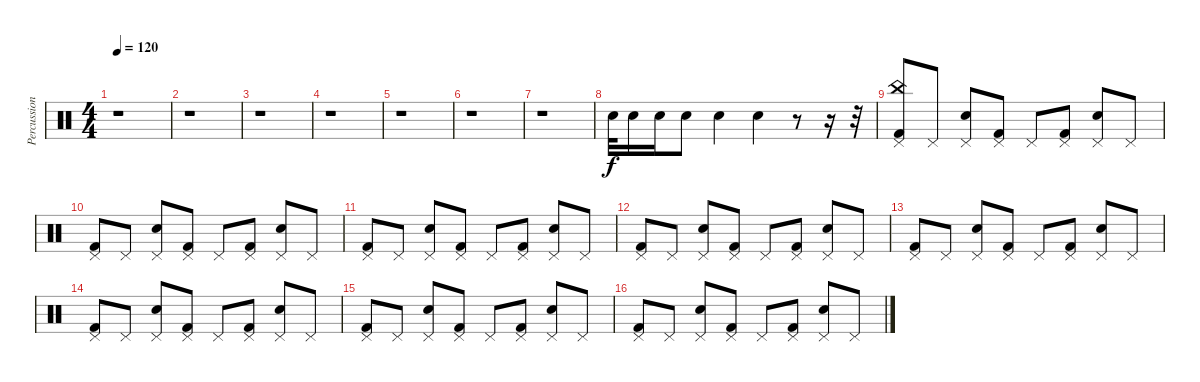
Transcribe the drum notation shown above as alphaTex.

\track ("Percussions" "Percussion") {instrument percussion}
\staff {score}
\articulation defaults
\ts (4 4)
\tempo 120
\clef neutral
\ks c
r.1{dy f} |
r.1 |
r.1 |
r.1 |
r.1 |
r.1 |
r.1 |
"Electric Snare (hit)".32 "Electric Snare (hit)".16 "Electric Snare (hit)".16 "Electric Snare (hit)".8 "Electric Snare (hit)".4 "Electric Snare (hit)".4 r.8 r.16 r.32 |
("Pedal Hi-Hat (hit)" "China (hit)" "Kick (hit) 2").8 "Pedal Hi-Hat (hit)".8 ("Pedal Hi-Hat (hit)" "Electric Snare (hit)").8 ("Pedal Hi-Hat (hit)" "Kick (hit) 2").8 "Pedal Hi-Hat (hit)".8 ("Pedal Hi-Hat (hit)" "Kick (hit) 2").8 ("Pedal Hi-Hat (hit)" "Electric Snare (hit)").8 "Pedal Hi-Hat (hit)".8 |
("Pedal Hi-Hat (hit)" "Kick (hit) 2").8 "Pedal Hi-Hat (hit)".8 ("Pedal Hi-Hat (hit)" "Electric Snare (hit)").8 ("Pedal Hi-Hat (hit)" "Kick (hit) 2").8 "Pedal Hi-Hat (hit)".8 ("Pedal Hi-Hat (hit)" "Kick (hit) 2").8 ("Pedal Hi-Hat (hit)" "Electric Snare (hit)").8 "Pedal Hi-Hat (hit)".8 |
("Pedal Hi-Hat (hit)" "Kick (hit) 2").8 "Pedal Hi-Hat (hit)".8 ("Pedal Hi-Hat (hit)" "Electric Snare (hit)").8 ("Pedal Hi-Hat (hit)" "Kick (hit) 2").8 "Pedal Hi-Hat (hit)".8 ("Pedal Hi-Hat (hit)" "Kick (hit) 2").8 ("Pedal Hi-Hat (hit)" "Electric Snare (hit)").8 "Pedal Hi-Hat (hit)".8 |
("Pedal Hi-Hat (hit)" "Kick (hit) 2").8 "Pedal Hi-Hat (hit)".8 ("Pedal Hi-Hat (hit)" "Electric Snare (hit)").8 ("Pedal Hi-Hat (hit)" "Kick (hit) 2").8 "Pedal Hi-Hat (hit)".8 ("Pedal Hi-Hat (hit)" "Kick (hit) 2").8 ("Pedal Hi-Hat (hit)" "Electric Snare (hit)").8 "Pedal Hi-Hat (hit)".8 |
("Pedal Hi-Hat (hit)" "Kick (hit) 2").8 "Pedal Hi-Hat (hit)".8 ("Pedal Hi-Hat (hit)" "Electric Snare (hit)").8 ("Pedal Hi-Hat (hit)" "Kick (hit) 2").8 "Pedal Hi-Hat (hit)".8 ("Pedal Hi-Hat (hit)" "Kick (hit) 2").8 ("Pedal Hi-Hat (hit)" "Electric Snare (hit)").8 "Pedal Hi-Hat (hit)".8 |
("Pedal Hi-Hat (hit)" "Kick (hit) 2").8 "Pedal Hi-Hat (hit)".8 ("Pedal Hi-Hat (hit)" "Electric Snare (hit)").8 ("Pedal Hi-Hat (hit)" "Kick (hit) 2").8 "Pedal Hi-Hat (hit)".8 ("Pedal Hi-Hat (hit)" "Kick (hit) 2").8 ("Pedal Hi-Hat (hit)" "Electric Snare (hit)").8 "Pedal Hi-Hat (hit)".8 |
("Pedal Hi-Hat (hit)" "Kick (hit) 2").8 "Pedal Hi-Hat (hit)".8 ("Pedal Hi-Hat (hit)" "Electric Snare (hit)").8 ("Pedal Hi-Hat (hit)" "Kick (hit) 2").8 "Pedal Hi-Hat (hit)".8 ("Pedal Hi-Hat (hit)" "Kick (hit) 2").8 ("Pedal Hi-Hat (hit)" "Electric Snare (hit)").8 "Pedal Hi-Hat (hit)".8 |
("Pedal Hi-Hat (hit)" "Kick (hit) 2").8 "Pedal Hi-Hat (hit)".8 ("Pedal Hi-Hat (hit)" "Electric Snare (hit)").8 ("Pedal Hi-Hat (hit)" "Kick (hit) 2").8 "Pedal Hi-Hat (hit)".8 ("Pedal Hi-Hat (hit)" "Kick (hit) 2").8 ("Pedal Hi-Hat (hit)" "Electric Snare (hit)").8 "Pedal Hi-Hat (hit)".8
